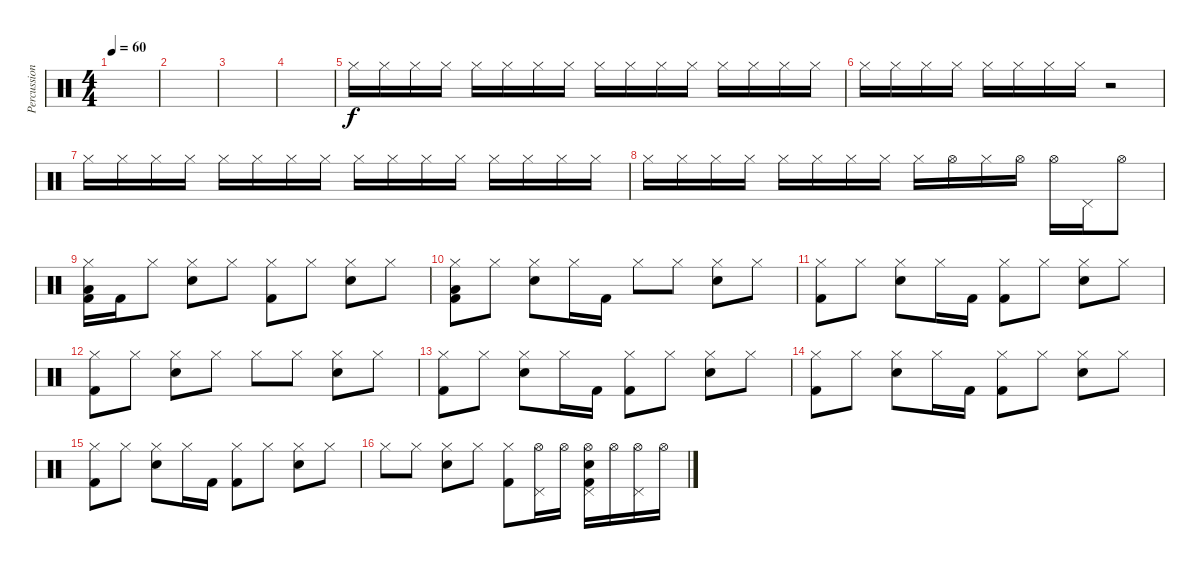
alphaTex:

\track ("Percussion" "Percussion") {instrument percussion}
\staff {score}
\articulation defaults
\ts (4 4)
\tempo 60
\clef neutral
\ks c
|
|
|
|
"Hi-Hat (closed)".16 "Hi-Hat (closed)".16 "Hi-Hat (closed)".16 "Hi-Hat (closed)".16 "Hi-Hat (closed)".16 "Hi-Hat (closed)".16 "Hi-Hat (closed)".16{volume 4} "Hi-Hat (closed)".16 "Hi-Hat (closed)".16 "Hi-Hat (closed)".16 "Hi-Hat (closed)".16 "Hi-Hat (closed)".16 "Hi-Hat (closed)".16 "Hi-Hat (closed)".16 "Hi-Hat (closed)".16 "Hi-Hat (closed)".16 |
"Hi-Hat (closed)".16 "Hi-Hat (closed)".16 "Hi-Hat (closed)".16 "Hi-Hat (closed)".16 "Hi-Hat (closed)".16 "Hi-Hat (closed)".16 "Hi-Hat (closed)".16 "Hi-Hat (closed)".16 r.2 |
"Hi-Hat (closed)".16{volume 13} "Hi-Hat (closed)".16 "Hi-Hat (closed)".16 "Hi-Hat (closed)".16 "Hi-Hat (closed)".16 "Hi-Hat (closed)".16 "Hi-Hat (closed)".16{volume 4} "Hi-Hat (closed)".16 "Hi-Hat (closed)".16 "Hi-Hat (closed)".16 "Hi-Hat (closed)".16 "Hi-Hat (closed)".16 "Hi-Hat (closed)".16 "Hi-Hat (closed)".16 "Hi-Hat (closed)".16 "Hi-Hat (closed)".16 |
"Hi-Hat (closed)".16 "Hi-Hat (closed)".16 "Hi-Hat (closed)".16 "Hi-Hat (closed)".16 "Hi-Hat (closed)".16 "Hi-Hat (closed)".16 "Hi-Hat (closed)".16 "Hi-Hat (closed)".16 "Hi-Hat (closed)".16 "Hi-Hat (open)".16 "Hi-Hat (closed)".16{volume 13} "Hi-Hat (open)".16 "Hi-Hat (open)".16 "Pedal Hi-Hat (hit)".16 "Hi-Hat (open)".8 |
("Hi-Hat (closed)" "Low Floor Tom (hit)" "Kick (hit) 2").16 "Kick (hit) 2".16 "Hi-Hat (closed)".8 ("Hi-Hat (closed)" "Electric Snare (hit)").8 "Hi-Hat (closed)".8 ("Hi-Hat (closed)" "Kick (hit) 2").8 "Hi-Hat (closed)".8 ("Hi-Hat (closed)" "Electric Snare (hit)").8 "Hi-Hat (closed)".8 |
("Hi-Hat (closed)" "Low Floor Tom (hit)" "Kick (hit) 2").8 "Hi-Hat (closed)".8 ("Hi-Hat (closed)" "Electric Snare (hit)").8 "Hi-Hat (closed)".16 "Kick (hit) 2".16 "Hi-Hat (closed)".8 "Hi-Hat (closed)".8 ("Hi-Hat (closed)" "Electric Snare (hit)").8 "Hi-Hat (closed)".8 |
("Hi-Hat (closed)" "Kick (hit) 2").8 "Hi-Hat (closed)".8 ("Hi-Hat (closed)" "Electric Snare (hit)").8 "Hi-Hat (closed)".16 "Kick (hit) 2".16 ("Hi-Hat (closed)" "Kick (hit) 2").8 "Hi-Hat (closed)".8 ("Hi-Hat (closed)" "Electric Snare (hit)").8 "Hi-Hat (closed)".8 |
("Hi-Hat (closed)" "Kick (hit) 2").8 "Hi-Hat (closed)".8 ("Hi-Hat (closed)" "Electric Snare (hit)").8 "Hi-Hat (closed)".8 "Hi-Hat (closed)".8 "Hi-Hat (closed)".8 ("Hi-Hat (closed)" "Electric Snare (hit)").8 "Hi-Hat (closed)".8 |
("Hi-Hat (closed)" "Kick (hit) 2").8 "Hi-Hat (closed)".8 ("Hi-Hat (closed)" "Electric Snare (hit)").8 "Hi-Hat (closed)".16 "Kick (hit) 2".16 ("Hi-Hat (closed)" "Kick (hit) 2").8 "Hi-Hat (closed)".8 ("Hi-Hat (closed)" "Electric Snare (hit)").8 "Hi-Hat (closed)".8 |
("Hi-Hat (closed)" "Kick (hit) 2").8 "Hi-Hat (closed)".8 ("Hi-Hat (closed)" "Electric Snare (hit)").8 "Hi-Hat (closed)".16 "Kick (hit) 2".16 ("Hi-Hat (closed)" "Kick (hit) 2").8 "Hi-Hat (closed)".8 ("Hi-Hat (closed)" "Electric Snare (hit)").8 "Hi-Hat (closed)".8 |
("Hi-Hat (closed)" "Kick (hit) 2").8 "Hi-Hat (closed)".8 ("Hi-Hat (closed)" "Electric Snare (hit)").8 "Hi-Hat (closed)".16 "Kick (hit) 2".16 ("Hi-Hat (closed)" "Kick (hit) 2").8 "Hi-Hat (closed)".8 ("Hi-Hat (closed)" "Electric Snare (hit)").8 "Hi-Hat (closed)".8 |
"Hi-Hat (closed)".8 "Hi-Hat (closed)".8 ("Hi-Hat (closed)" "Electric Snare (hit)").8 "Hi-Hat (closed)".8 ("Hi-Hat (closed)" "Kick (hit) 2").8 ("Hi-Hat (open)" "Pedal Hi-Hat (hit)").16 "Hi-Hat (open)".16 ("Hi-Hat (open)" "Pedal Hi-Hat (hit)" "Electric Snare (hit)" "Kick (hit) 2").16 "Hi-Hat (open)".16 ("Hi-Hat (open)" "Pedal Hi-Hat (hit)").16 "Hi-Hat (open)".16
